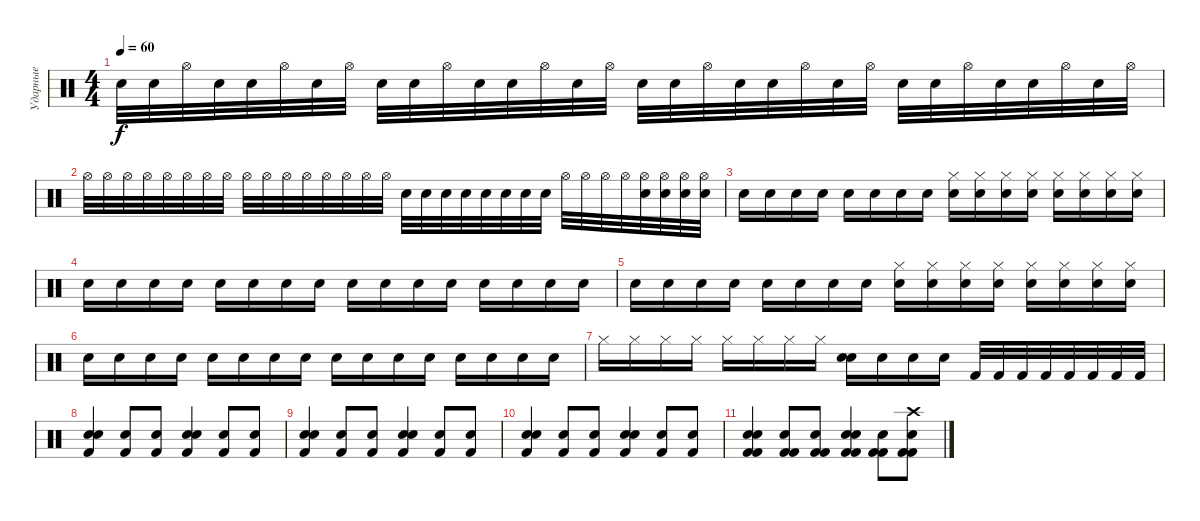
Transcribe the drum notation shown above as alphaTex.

\track ("Ударные" "Ударные") {instrument percussion}
\staff {score}
\articulation defaults
\ts (4 4)
\tempo 60
\clef neutral
\ks c "Electric Snare (hit)".32{dy f} "Electric Snare (hit)".32 "Hi-Hat (open)".32 "Electric Snare (hit)".32 "Electric Snare (hit)".32 "Hi-Hat (open)".32 "Electric Snare (hit)".32 "Hi-Hat (open)".32 "Electric Snare (hit)".32 "Electric Snare (hit)".32 "Hi-Hat (open)".32 "Electric Snare (hit)".32 "Electric Snare (hit)".32 "Hi-Hat (open)".32 "Electric Snare (hit)".32 "Hi-Hat (open)".32 "Electric Snare (hit)".32 "Electric Snare (hit)".32 "Hi-Hat (open)".32 "Electric Snare (hit)".32 "Electric Snare (hit)".32 "Hi-Hat (open)".32 "Electric Snare (hit)".32 "Hi-Hat (open)".32 "Electric Snare (hit)".32 "Electric Snare (hit)".32 "Hi-Hat (open)".32 "Electric Snare (hit)".32 "Electric Snare (hit)".32 "Hi-Hat (open)".32 "Electric Snare (hit)".32 "Hi-Hat (open)".32
|
"Hi-Hat (open)".32 "Hi-Hat (open)".32 "Hi-Hat (open)".32 "Hi-Hat (open)".32 "Hi-Hat (open)".32 "Hi-Hat (open)".32 "Hi-Hat (open)".32 "Hi-Hat (open)".32 "Hi-Hat (open)".32 "Hi-Hat (open)".32 "Hi-Hat (open)".32 "Hi-Hat (open)".32 "Hi-Hat (open)".32 "Hi-Hat (open)".32 "Hi-Hat (open)".32 "Hi-Hat (open)".32 "Electric Snare (hit)".32 "Electric Snare (hit)".32 "Electric Snare (hit)".32 "Electric Snare (hit)".32 "Electric Snare (hit)".32 "Electric Snare (hit)".32 "Electric Snare (hit)".32 "Electric Snare (hit)".32 "Hi-Hat (open)".32 "Hi-Hat (open)".32 "Hi-Hat (open)".32 "Hi-Hat (open)".32 ("Hi-Hat (open)" "Electric Snare (hit)").32 ("Hi-Hat (open)" "Electric Snare (hit)").32 ("Hi-Hat (open)" "Electric Snare (hit)").32 ("Hi-Hat (open)" "Electric Snare (hit)").32 |
"Electric Snare (hit)".16 "Electric Snare (hit)".16 "Electric Snare (hit)".16 "Electric Snare (hit)".16 "Electric Snare (hit)".16 "Electric Snare (hit)".16 "Electric Snare (hit)".16 "Electric Snare (hit)".16 ("Electric Snare (hit)" "Hi-Hat (closed)").16 ("Electric Snare (hit)" "Hi-Hat (closed)").16 ("Electric Snare (hit)" "Hi-Hat (closed)").16 ("Electric Snare (hit)" "Hi-Hat (closed)").16 ("Electric Snare (hit)" "Hi-Hat (closed)").16 ("Electric Snare (hit)" "Hi-Hat (closed)").16 ("Electric Snare (hit)" "Hi-Hat (closed)").16 ("Electric Snare (hit)" "Hi-Hat (closed)").16 |
"Electric Snare (hit)".16 "Electric Snare (hit)".16 "Electric Snare (hit)".16 "Electric Snare (hit)".16 "Electric Snare (hit)".16 "Electric Snare (hit)".16 "Electric Snare (hit)".16 "Electric Snare (hit)".16 "Electric Snare (hit)".16 "Electric Snare (hit)".16 "Electric Snare (hit)".16 "Electric Snare (hit)".16 "Electric Snare (hit)".16 "Electric Snare (hit)".16 "Electric Snare (hit)".16 "Electric Snare (hit)".16 |
"Electric Snare (hit)".16 "Electric Snare (hit)".16 "Electric Snare (hit)".16 "Electric Snare (hit)".16 "Electric Snare (hit)".16 "Electric Snare (hit)".16 "Electric Snare (hit)".16 "Electric Snare (hit)".16 ("Electric Snare (hit)" "Hi-Hat (closed)").16 ("Electric Snare (hit)" "Hi-Hat (closed)").16 ("Electric Snare (hit)" "Hi-Hat (closed)").16 ("Electric Snare (hit)" "Hi-Hat (closed)").16 ("Electric Snare (hit)" "Hi-Hat (closed)").16 ("Electric Snare (hit)" "Hi-Hat (closed)").16 ("Electric Snare (hit)" "Hi-Hat (closed)").16 ("Electric Snare (hit)" "Hi-Hat (closed)").16 |
"Electric Snare (hit)".16 "Electric Snare (hit)".16 "Electric Snare (hit)".16 "Electric Snare (hit)".16 "Electric Snare (hit)".16 "Electric Snare (hit)".16 "Electric Snare (hit)".16 "Electric Snare (hit)".16 "Electric Snare (hit)".16 "Electric Snare (hit)".16 "Electric Snare (hit)".16 "Electric Snare (hit)".16 "Electric Snare (hit)".16 "Electric Snare (hit)".16 "Electric Snare (hit)".16 "Electric Snare (hit)".16 |
"Hi-Hat (closed)".16 "Hi-Hat (closed)".16 "Hi-Hat (closed)".16 "Hi-Hat (closed)".16 "Hi-Hat (closed)".16 "Hi-Hat (closed)".16 "Hi-Hat (closed)".16 "Hi-Hat (closed)".16 ("Electric Snare (hit)" "Electric Snare (hit)").16 "Electric Snare (hit)".16 "Electric Snare (hit)".16 "Electric Snare (hit)".16 "Kick (hit) 2".32 "Kick (hit) 2".32 "Kick (hit) 2".32 "Kick (hit) 2".32 "Kick (hit) 2".32 "Kick (hit) 2".32 "Kick (hit) 2".32 "Kick (hit) 2".32 |
("Kick (hit) 2" "Electric Snare (hit)" "Electric Snare (hit)").4 ("Kick (hit) 2" "Electric Snare (hit)").8 ("Kick (hit) 2" "Electric Snare (hit)").8 ("Kick (hit) 2" "Electric Snare (hit)" "Electric Snare (hit)").4 ("Kick (hit) 2" "Electric Snare (hit)").8 ("Kick (hit) 2" "Electric Snare (hit)").8 |
("Kick (hit) 2" "Electric Snare (hit)" "Electric Snare (hit)").4 ("Kick (hit) 2" "Electric Snare (hit)").8 ("Kick (hit) 2" "Electric Snare (hit)").8 ("Kick (hit) 2" "Electric Snare (hit)" "Electric Snare (hit)").4 ("Kick (hit) 2" "Electric Snare (hit)").8 ("Kick (hit) 2" "Electric Snare (hit)").8 |
("Kick (hit) 2" "Electric Snare (hit)" "Electric Snare (hit)").4 ("Kick (hit) 2" "Electric Snare (hit)").8 ("Kick (hit) 2" "Electric Snare (hit)").8 ("Kick (hit) 2" "Electric Snare (hit)" "Electric Snare (hit)").4 ("Kick (hit) 2" "Electric Snare (hit)").8 ("Kick (hit) 2" "Electric Snare (hit)").8 |
("Kick (hit) 2" "Kick (hit) 2" "Electric Snare (hit)" "Electric Snare (hit)").4 ("Kick (hit) 2" "Kick (hit) 2" "Electric Snare (hit)").8 ("Kick (hit) 2" "Kick (hit) 2" "Electric Snare (hit)").8 ("Kick (hit) 2" "Kick (hit) 2" "Electric Snare (hit)" "Electric Snare (hit)").4 ("Kick (hit) 2" "Kick (hit) 2" "Electric Snare (hit)").8 ("Kick (hit) 2" "Kick (hit) 2" "Electric Snare (hit)" "Crash high (hit)").8
